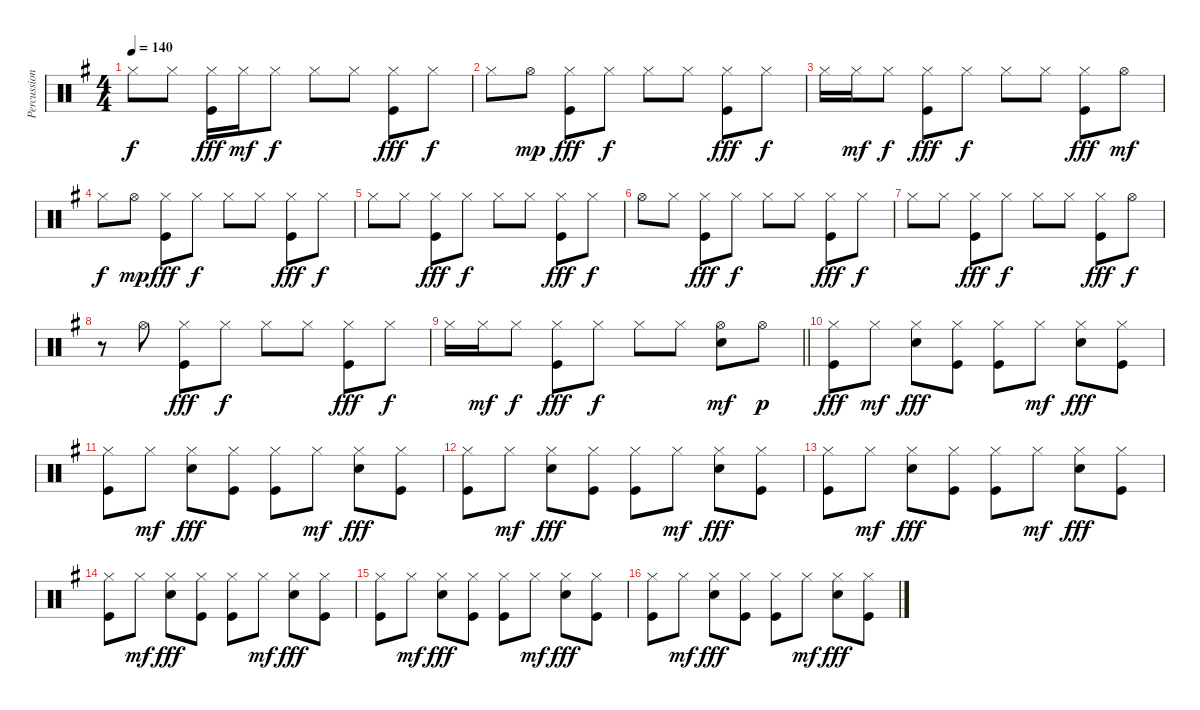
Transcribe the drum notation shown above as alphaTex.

\track ("Percussioni" "Percussion") {instrument percussion}
\staff {score}
\articulation defaults
\ts (4 4)
\tempo 140
\clef neutral
\ks eminor "Hi-Hat (closed)".8{dy f} "Hi-Hat (closed)".8
("Hi-Hat (closed)" "Kick (hit)").16{dy fff} "Hi-Hat (closed)".16{dy mf} "Hi-Hat (closed)".8{dy f} "Hi-Hat (closed)".8 "Hi-Hat (closed)".8 ("Hi-Hat (closed)" "Kick (hit)").8{dy fff} "Hi-Hat (closed)".8{dy f} |
"Hi-Hat (closed)".8 "Hi-Hat (open)".8{dy mp} ("Hi-Hat (closed)" "Kick (hit)").8{dy fff} "Hi-Hat (closed)".8{dy f} "Hi-Hat (closed)".8 "Hi-Hat (closed)".8 ("Hi-Hat (closed)" "Kick (hit)").8{dy fff} "Hi-Hat (closed)".8{dy f} |
"Hi-Hat (closed)".16 "Hi-Hat (closed)".16{dy mf} "Hi-Hat (closed)".8{dy f} ("Hi-Hat (closed)" "Kick (hit)").8{dy fff} "Hi-Hat (closed)".8{dy f} "Hi-Hat (closed)".8 "Hi-Hat (closed)".8 ("Hi-Hat (closed)" "Kick (hit)").8{dy fff} "Hi-Hat (open)".8{dy mf} |
"Hi-Hat (closed)".8{dy f} "Hi-Hat (open)".8{dy mp} ("Hi-Hat (closed)" "Kick (hit)").8{dy fff} "Hi-Hat (closed)".8{dy f} "Hi-Hat (closed)".8 "Hi-Hat (closed)".8 ("Hi-Hat (closed)" "Kick (hit)").8{dy fff} "Hi-Hat (closed)".8{dy f} |
"Hi-Hat (closed)".8 "Hi-Hat (closed)".8 ("Hi-Hat (closed)" "Kick (hit)").8{dy fff} "Hi-Hat (closed)".8{dy f} "Hi-Hat (closed)".8 "Hi-Hat (closed)".8 ("Hi-Hat (closed)" "Kick (hit)").8{dy fff} "Hi-Hat (closed)".8{dy f} |
"Hi-Hat (open)".8 "Hi-Hat (closed)".8 ("Hi-Hat (closed)" "Kick (hit)").8{dy fff} "Hi-Hat (closed)".8{dy f} "Hi-Hat (closed)".8 "Hi-Hat (closed)".8 ("Hi-Hat (closed)" "Kick (hit)").8{dy fff} "Hi-Hat (closed)".8{dy f} |
"Hi-Hat (closed)".8 "Hi-Hat (closed)".8 ("Hi-Hat (closed)" "Kick (hit)").8{dy fff} "Hi-Hat (closed)".8{dy f} "Hi-Hat (closed)".8 "Hi-Hat (closed)".8 ("Hi-Hat (closed)" "Kick (hit)").8{dy fff} "Hi-Hat (open)".8{dy f} |
r.8 "Hi-Hat (open)".8 ("Hi-Hat (closed)" "Kick (hit)").8{dy fff} "Hi-Hat (closed)".8{dy f} "Hi-Hat (closed)".8 "Hi-Hat (closed)".8 ("Hi-Hat (closed)" "Kick (hit)").8{dy fff} "Hi-Hat (closed)".8{dy f} |
\barLineRight lightlight "Hi-Hat (closed)".16 "Hi-Hat (closed)".16{dy mf} "Hi-Hat (closed)".8{dy f}
("Hi-Hat (closed)" "Kick (hit)").8{dy fff} "Hi-Hat (closed)".8{dy f} "Hi-Hat (closed)".8 "Hi-Hat (closed)".8 ("Hi-Hat (open)" "Electric Snare (hit)").8{dy mf} "Hi-Hat (open)".8{dy p} |
\section ("" "")
("Hi-Hat (closed)" "Kick (hit)").8{dy fff} "Hi-Hat (closed)".8{dy mf} ("Hi-Hat (closed)" "Electric Snare (hit)").8{dy fff} ("Hi-Hat (closed)" "Kick (hit)").8 ("Hi-Hat (closed)" "Kick (hit)").8 "Hi-Hat (closed)".8{dy mf} ("Hi-Hat (closed)" "Electric Snare (hit)").8{dy fff} ("Hi-Hat (closed)" "Kick (hit)").8 |
("Hi-Hat (closed)" "Kick (hit)").8 "Hi-Hat (closed)".8{dy mf} ("Hi-Hat (closed)" "Electric Snare (hit)").8{dy fff} ("Hi-Hat (closed)" "Kick (hit)").8 ("Hi-Hat (closed)" "Kick (hit)").8 "Hi-Hat (closed)".8{dy mf} ("Hi-Hat (closed)" "Electric Snare (hit)").8{dy fff} ("Hi-Hat (closed)" "Kick (hit)").8 |
("Hi-Hat (closed)" "Kick (hit)").8 "Hi-Hat (closed)".8{dy mf} ("Hi-Hat (closed)" "Electric Snare (hit)").8{dy fff} ("Hi-Hat (closed)" "Kick (hit)").8 ("Hi-Hat (closed)" "Kick (hit)").8 "Hi-Hat (closed)".8{dy mf} ("Hi-Hat (closed)" "Electric Snare (hit)").8{dy fff} ("Hi-Hat (closed)" "Kick (hit)").8 |
("Hi-Hat (closed)" "Kick (hit)").8 "Hi-Hat (closed)".8{dy mf} ("Hi-Hat (closed)" "Electric Snare (hit)").8{dy fff} ("Hi-Hat (closed)" "Kick (hit)").8 ("Hi-Hat (closed)" "Kick (hit)").8 "Hi-Hat (closed)".8{dy mf} ("Hi-Hat (closed)" "Electric Snare (hit)").8{dy fff} ("Hi-Hat (closed)" "Kick (hit)").8 |
("Hi-Hat (closed)" "Kick (hit)").8 "Hi-Hat (closed)".8{dy mf} ("Hi-Hat (closed)" "Electric Snare (hit)").8{dy fff} ("Hi-Hat (closed)" "Kick (hit)").8 ("Hi-Hat (closed)" "Kick (hit)").8 "Hi-Hat (closed)".8{dy mf} ("Hi-Hat (closed)" "Electric Snare (hit)").8{dy fff} ("Hi-Hat (closed)" "Kick (hit)").8 |
("Hi-Hat (closed)" "Kick (hit)").8 "Hi-Hat (closed)".8{dy mf} ("Hi-Hat (closed)" "Electric Snare (hit)").8{dy fff} ("Hi-Hat (closed)" "Kick (hit)").8 ("Hi-Hat (closed)" "Kick (hit)").8 "Hi-Hat (closed)".8{dy mf} ("Hi-Hat (closed)" "Electric Snare (hit)").8{dy fff} ("Hi-Hat (closed)" "Kick (hit)").8 |
("Hi-Hat (closed)" "Kick (hit)").8 "Hi-Hat (closed)".8{dy mf} ("Hi-Hat (closed)" "Electric Snare (hit)").8{dy fff} ("Hi-Hat (closed)" "Kick (hit)").8 ("Hi-Hat (closed)" "Kick (hit)").8 "Hi-Hat (closed)".8{dy mf} ("Hi-Hat (closed)" "Electric Snare (hit)").8{dy fff} ("Hi-Hat (closed)" "Kick (hit)").8
